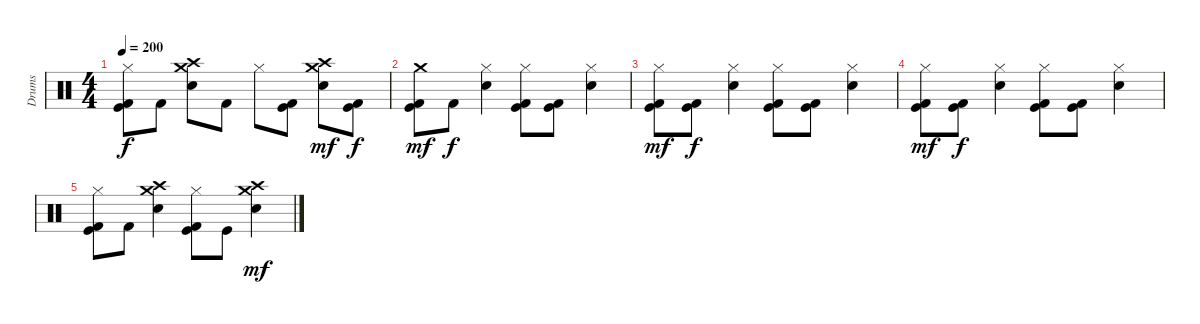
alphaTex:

\track ("Drums" "Drums") {instrument percussion}
\staff {score}
\articulation defaults
\ts (4 4)
\tempo 200
\clef neutral
\ks c
("Hi-Hat (closed)" "Kick (hit)" "Kick (hit) 2").8{dy f} "Kick (hit) 2".8 ("Crash high (hit)" "Crash medium (hit)" "Snare (hit) 2").8 "Kick (hit) 2".8 "Hi-Hat (closed)".8 ("Kick (hit)" "Kick (hit) 2").8 ("Crash high (hit)" "Crash medium (hit)" "Snare (hit) 2").8{dy mf} ("Kick (hit)" "Kick (hit) 2").8{dy f} |
("Crash medium (hit)" "Kick (hit)" "Kick (hit) 2").8{dy mf} "Kick (hit) 2".8{dy f} ("Hi-Hat (closed)" "Snare (hit) 2").4 ("Hi-Hat (closed)" "Kick (hit)" "Kick (hit) 2").8 ("Kick (hit)" "Kick (hit) 2").8 ("Hi-Hat (closed)" "Snare (hit) 2").4 |
("Hi-Hat (closed)" "Kick (hit)" "Kick (hit) 2").8{dy mf} ("Kick (hit)" "Kick (hit) 2").8{dy f} ("Hi-Hat (closed)" "Snare (hit) 2").4 ("Hi-Hat (closed)" "Kick (hit)" "Kick (hit) 2").8 ("Kick (hit)" "Kick (hit) 2").8 ("Hi-Hat (closed)" "Snare (hit) 2").4 |
("Hi-Hat (closed)" "Kick (hit)" "Kick (hit) 2").8{dy mf} ("Kick (hit)" "Kick (hit) 2").8{dy f} ("Hi-Hat (closed)" "Snare (hit) 2").4 ("Hi-Hat (closed)" "Kick (hit)" "Kick (hit) 2").8 ("Kick (hit)" "Kick (hit) 2").8 ("Hi-Hat (closed)" "Snare (hit) 2").4 |
("Hi-Hat (closed)" "Kick (hit)" "Kick (hit) 2").8 "Kick (hit) 2".8 ("Crash high (hit)" "Crash medium (hit)" "Snare (hit) 2").4 ("Hi-Hat (closed)" "Kick (hit)" "Kick (hit) 2").8 "Kick (hit)".8 ("Crash high (hit)" "Crash medium (hit)" "Snare (hit) 2").4{dy mf}
